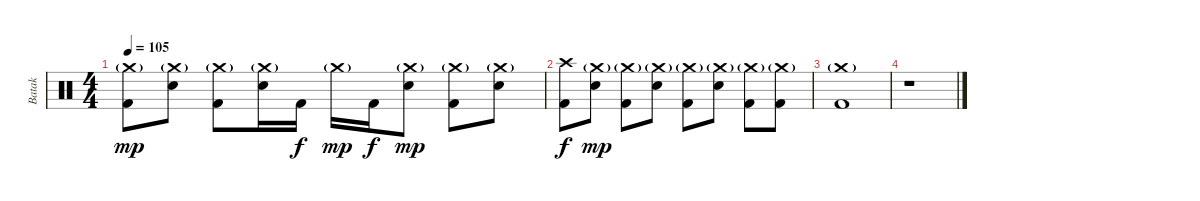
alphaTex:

\track ("Batak" "Batak") {instrument percussion}
\staff {score}
\articulation defaults
\ts (4 4)
\tempo 105
\clef neutral
\ks c
("Crash medium (hit)"{g} "Kick (hit) 2").8{dy mp} ("Crash medium (hit)"{g} "Electric Snare (hit)").8 ("Crash medium (hit)"{g} "Kick (hit) 2").8 ("Crash medium (hit)"{g} "Electric Snare (hit)").16 "Kick (hit) 2".16{dy f} "Crash medium (hit)"{g}.16{dy mp} "Kick (hit) 2".16{dy f} ("Crash medium (hit)"{g} "Electric Snare (hit)").8{dy mp} ("Crash medium (hit)"{g} "Kick (hit) 2").8 ("Crash medium (hit)"{g} "Electric Snare (hit)").8 |
("Crash high (hit)" "Kick (hit) 2").8{dy f} ("Crash medium (hit)"{g} "Electric Snare (hit)").8{dy mp} ("Crash medium (hit)"{g} "Kick (hit) 2").8 ("Crash medium (hit)"{g} "Electric Snare (hit)").8 ("Crash medium (hit)"{g} "Kick (hit) 2").8 ("Crash medium (hit)"{g} "Electric Snare (hit)").8 ("Crash medium (hit)"{g} "Kick (hit) 2").8 ("Crash medium (hit)"{g} "Kick (hit) 2").8 |
("Crash medium (hit)"{g} "Kick (hit) 2").1 |
r.1
